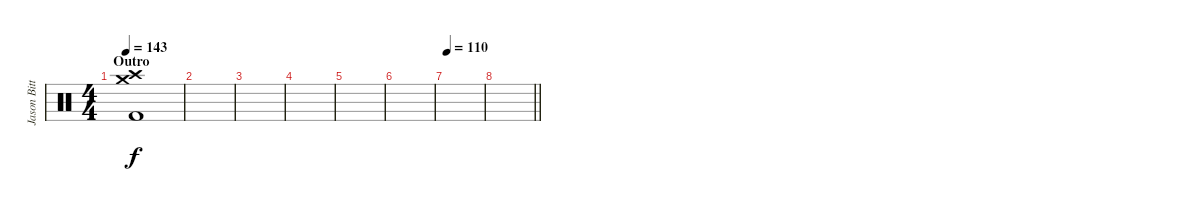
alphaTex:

\track ("Jason Bittner" "Jason Bitt") {instrument percussion}
\staff {score}
\articulation defaults
\ts (4 4)
\section ("" "Outro")
\tempo 143
\clef neutral
\ks c
("Crash medium (hit)" "Crash high (hit)" "Kick (hit) 2").1{dy f} |
|
|
|
|
|
\tempo 110
|
\barLineRight lightlight
